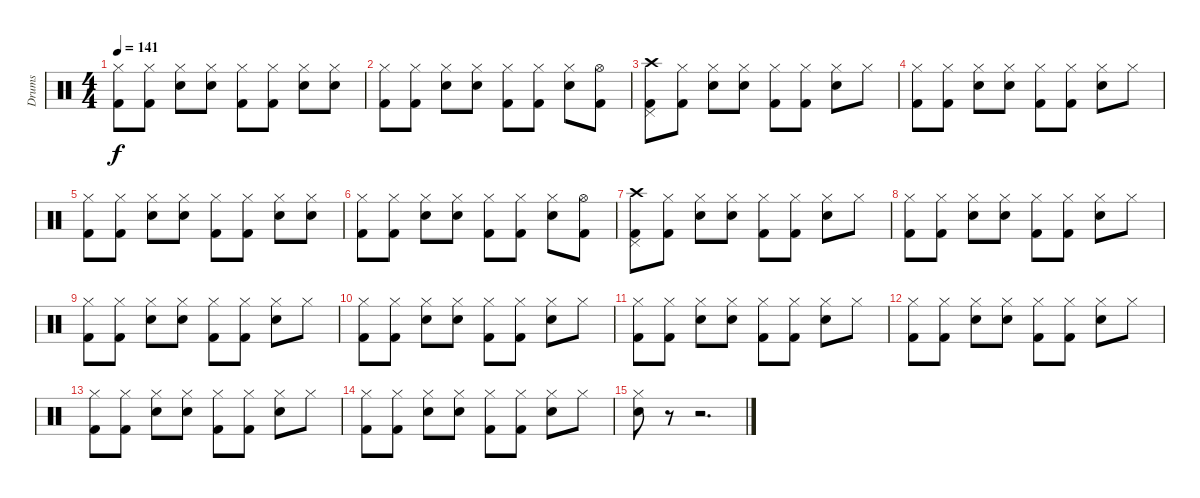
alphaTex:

\track ("Drums" "Drums") {instrument percussion}
\staff {score}
\articulation defaults
\ts (4 4)
\tempo 141
\clef neutral
\ks c
("Hi-Hat (closed)" "Kick (hit) 2").8{dy f} ("Hi-Hat (closed)" "Kick (hit) 2").8 ("Hi-Hat (closed)" "Electric Snare (hit)").8 ("Hi-Hat (closed)" "Electric Snare (hit)").8 ("Hi-Hat (closed)" "Kick (hit) 2").8 ("Hi-Hat (closed)" "Kick (hit) 2").8 ("Hi-Hat (closed)" "Electric Snare (hit)").8 ("Hi-Hat (closed)" "Electric Snare (hit)").8 |
("Hi-Hat (closed)" "Kick (hit) 2").8 ("Hi-Hat (closed)" "Kick (hit) 2").8 ("Hi-Hat (closed)" "Electric Snare (hit)").8 ("Hi-Hat (closed)" "Electric Snare (hit)").8 ("Hi-Hat (closed)" "Kick (hit) 2").8 ("Hi-Hat (closed)" "Kick (hit) 2").8 ("Hi-Hat (closed)" "Electric Snare (hit)").8 ("Hi-Hat (open)" "Kick (hit) 2").8 |
("Crash high (hit)" "Pedal Hi-Hat (hit)" "Kick (hit) 2").8 ("Hi-Hat (closed)" "Kick (hit) 2").8 ("Hi-Hat (closed)" "Electric Snare (hit)").8 ("Hi-Hat (closed)" "Electric Snare (hit)").8 ("Hi-Hat (closed)" "Kick (hit) 2").8 ("Hi-Hat (closed)" "Kick (hit) 2").8 ("Hi-Hat (closed)" "Electric Snare (hit)").8 "Hi-Hat (closed)".8 |
("Hi-Hat (closed)" "Kick (hit) 2").8 ("Hi-Hat (closed)" "Kick (hit) 2").8 ("Hi-Hat (closed)" "Electric Snare (hit)").8 ("Hi-Hat (closed)" "Electric Snare (hit)").8 ("Hi-Hat (closed)" "Kick (hit) 2").8 ("Hi-Hat (closed)" "Kick (hit) 2").8 ("Hi-Hat (closed)" "Electric Snare (hit)").8 "Hi-Hat (closed)".8 |
("Hi-Hat (closed)" "Kick (hit) 2").8 ("Hi-Hat (closed)" "Kick (hit) 2").8 ("Hi-Hat (closed)" "Electric Snare (hit)").8 ("Hi-Hat (closed)" "Electric Snare (hit)").8 ("Hi-Hat (closed)" "Kick (hit) 2").8 ("Hi-Hat (closed)" "Kick (hit) 2").8 ("Hi-Hat (closed)" "Electric Snare (hit)").8 ("Hi-Hat (closed)" "Electric Snare (hit)").8 |
("Hi-Hat (closed)" "Kick (hit) 2").8 ("Hi-Hat (closed)" "Kick (hit) 2").8 ("Hi-Hat (closed)" "Electric Snare (hit)").8 ("Hi-Hat (closed)" "Electric Snare (hit)").8 ("Hi-Hat (closed)" "Kick (hit) 2").8 ("Hi-Hat (closed)" "Kick (hit) 2").8 ("Hi-Hat (closed)" "Electric Snare (hit)").8 ("Hi-Hat (open)" "Kick (hit) 2").8 |
("Crash high (hit)" "Pedal Hi-Hat (hit)" "Kick (hit) 2").8 ("Hi-Hat (closed)" "Kick (hit) 2").8 ("Hi-Hat (closed)" "Electric Snare (hit)").8 ("Hi-Hat (closed)" "Electric Snare (hit)").8 ("Hi-Hat (closed)" "Kick (hit) 2").8 ("Hi-Hat (closed)" "Kick (hit) 2").8 ("Hi-Hat (closed)" "Electric Snare (hit)").8 "Hi-Hat (closed)".8 |
("Hi-Hat (closed)" "Kick (hit) 2").8 ("Hi-Hat (closed)" "Kick (hit) 2").8 ("Hi-Hat (closed)" "Electric Snare (hit)").8 ("Hi-Hat (closed)" "Electric Snare (hit)").8 ("Hi-Hat (closed)" "Kick (hit) 2").8 ("Hi-Hat (closed)" "Kick (hit) 2").8 ("Hi-Hat (closed)" "Electric Snare (hit)").8 "Hi-Hat (closed)".8 |
("Hi-Hat (closed)" "Kick (hit) 2").8 ("Hi-Hat (closed)" "Kick (hit) 2").8 ("Hi-Hat (closed)" "Electric Snare (hit)").8 ("Hi-Hat (closed)" "Electric Snare (hit)").8 ("Hi-Hat (closed)" "Kick (hit) 2").8 ("Hi-Hat (closed)" "Kick (hit) 2").8 ("Hi-Hat (closed)" "Electric Snare (hit)").8 "Hi-Hat (closed)".8 |
("Hi-Hat (closed)" "Kick (hit) 2").8 ("Hi-Hat (closed)" "Kick (hit) 2").8 ("Hi-Hat (closed)" "Electric Snare (hit)").8 ("Hi-Hat (closed)" "Electric Snare (hit)").8 ("Hi-Hat (closed)" "Kick (hit) 2").8 ("Hi-Hat (closed)" "Kick (hit) 2").8 ("Hi-Hat (closed)" "Electric Snare (hit)").8 "Hi-Hat (closed)".8 |
("Hi-Hat (closed)" "Kick (hit) 2").8 ("Hi-Hat (closed)" "Kick (hit) 2").8 ("Hi-Hat (closed)" "Electric Snare (hit)").8 ("Hi-Hat (closed)" "Electric Snare (hit)").8 ("Hi-Hat (closed)" "Kick (hit) 2").8 ("Hi-Hat (closed)" "Kick (hit) 2").8 ("Hi-Hat (closed)" "Electric Snare (hit)").8 "Hi-Hat (closed)".8 |
("Hi-Hat (closed)" "Kick (hit) 2").8 ("Hi-Hat (closed)" "Kick (hit) 2").8 ("Hi-Hat (closed)" "Electric Snare (hit)").8 ("Hi-Hat (closed)" "Electric Snare (hit)").8 ("Hi-Hat (closed)" "Kick (hit) 2").8 ("Hi-Hat (closed)" "Kick (hit) 2").8 ("Hi-Hat (closed)" "Electric Snare (hit)").8 "Hi-Hat (closed)".8 |
("Hi-Hat (closed)" "Kick (hit) 2").8 ("Hi-Hat (closed)" "Kick (hit) 2").8 ("Hi-Hat (closed)" "Electric Snare (hit)").8 ("Hi-Hat (closed)" "Electric Snare (hit)").8 ("Hi-Hat (closed)" "Kick (hit) 2").8 ("Hi-Hat (closed)" "Kick (hit) 2").8 ("Hi-Hat (closed)" "Electric Snare (hit)").8 "Hi-Hat (closed)".8 |
("Hi-Hat (closed)" "Kick (hit) 2").8 ("Hi-Hat (closed)" "Kick (hit) 2").8 ("Hi-Hat (closed)" "Electric Snare (hit)").8 ("Hi-Hat (closed)" "Electric Snare (hit)").8 ("Hi-Hat (closed)" "Kick (hit) 2").8 ("Hi-Hat (closed)" "Kick (hit) 2").8 ("Hi-Hat (closed)" "Electric Snare (hit)").8 "Hi-Hat (closed)".8 |
("Hi-Hat (closed)" "Electric Snare (hit)").8 r.8 r.2{d}
